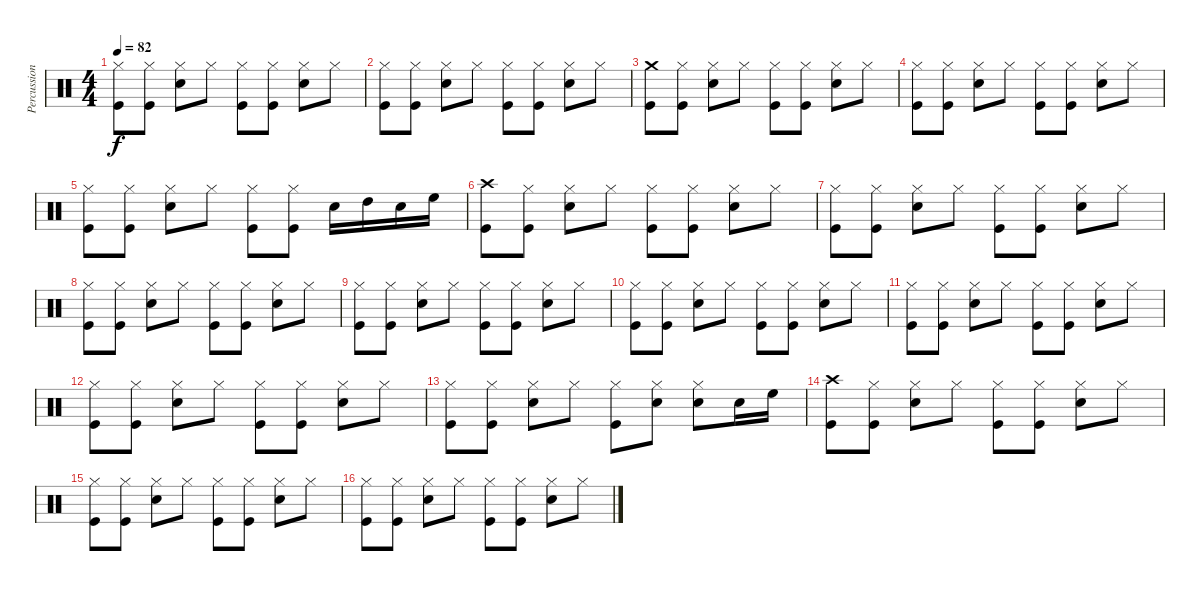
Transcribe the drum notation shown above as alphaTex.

\track ("Percussioni" "Percussion") {instrument percussion}
\staff {score}
\articulation defaults
\ts (4 4)
\tempo 82
\clef neutral
\ks c
("Hi-Hat (closed)" "Kick (hit)").8{dy f} ("Hi-Hat (closed)" "Kick (hit)").8 ("Hi-Hat (closed)" "Snare (hit) 2").8 "Hi-Hat (closed)".8 ("Hi-Hat (closed)" "Kick (hit)").8 ("Hi-Hat (closed)" "Kick (hit)").8 ("Hi-Hat (closed)" "Snare (hit) 2").8 "Hi-Hat (closed)".8 |
("Hi-Hat (closed)" "Kick (hit)").8 ("Hi-Hat (closed)" "Kick (hit)").8 ("Hi-Hat (closed)" "Snare (hit) 2").8 "Hi-Hat (closed)".8 ("Hi-Hat (closed)" "Kick (hit)").8 ("Hi-Hat (closed)" "Kick (hit)").8 ("Hi-Hat (closed)" "Snare (hit) 2").8 "Hi-Hat (closed)".8 |
("Crash medium (hit)" "Kick (hit)").8 ("Hi-Hat (closed)" "Kick (hit)").8 ("Hi-Hat (closed)" "Snare (hit) 2").8 "Hi-Hat (closed)".8 ("Hi-Hat (closed)" "Kick (hit)").8 ("Hi-Hat (closed)" "Kick (hit)").8 ("Hi-Hat (closed)" "Snare (hit) 2").8 "Hi-Hat (closed)".8 |
("Hi-Hat (closed)" "Kick (hit)").8 ("Hi-Hat (closed)" "Kick (hit)").8 ("Hi-Hat (closed)" "Snare (hit) 2").8 "Hi-Hat (closed)".8 ("Hi-Hat (closed)" "Kick (hit)").8 ("Hi-Hat (closed)" "Kick (hit)").8 ("Hi-Hat (closed)" "Snare (hit) 2").8 "Hi-Hat (closed)".8 |
("Hi-Hat (closed)" "Kick (hit)").8 ("Hi-Hat (closed)" "Kick (hit)").8 ("Hi-Hat (closed)" "Snare (hit) 2").8 "Hi-Hat (closed)".8 ("Hi-Hat (closed)" "Kick (hit)").8 ("Hi-Hat (closed)" "Kick (hit)").8 "Snare (hit) 2".16 "High Tom (hit)".16 "Snare (hit) 2".16 "High Floor Tom (hit)".16 |
("Crash high (hit)" "Kick (hit)").8 ("Hi-Hat (closed)" "Kick (hit)").8 ("Hi-Hat (closed)" "Snare (hit) 2").8 "Hi-Hat (closed)".8 ("Hi-Hat (closed)" "Kick (hit)").8 ("Hi-Hat (closed)" "Kick (hit)").8 ("Hi-Hat (closed)" "Snare (hit) 2").8 "Hi-Hat (closed)".8 |
("Hi-Hat (closed)" "Kick (hit)").8 ("Hi-Hat (closed)" "Kick (hit)").8 ("Hi-Hat (closed)" "Snare (hit) 2").8 "Hi-Hat (closed)".8 ("Hi-Hat (closed)" "Kick (hit)").8 ("Hi-Hat (closed)" "Kick (hit)").8 ("Hi-Hat (closed)" "Snare (hit) 2").8 "Hi-Hat (closed)".8 |
("Hi-Hat (closed)" "Kick (hit)").8 ("Hi-Hat (closed)" "Kick (hit)").8 ("Hi-Hat (closed)" "Snare (hit) 2").8 "Hi-Hat (closed)".8 ("Hi-Hat (closed)" "Kick (hit)").8 ("Hi-Hat (closed)" "Kick (hit)").8 ("Hi-Hat (closed)" "Snare (hit) 2").8 "Hi-Hat (closed)".8 |
("Hi-Hat (closed)" "Kick (hit)").8 ("Hi-Hat (closed)" "Kick (hit)").8 ("Hi-Hat (closed)" "Snare (hit) 2").8 "Hi-Hat (closed)".8 ("Hi-Hat (closed)" "Kick (hit)").8 ("Hi-Hat (closed)" "Kick (hit)").8 ("Hi-Hat (closed)" "Snare (hit) 2").8 "Hi-Hat (closed)".8 |
("Hi-Hat (closed)" "Kick (hit)").8 ("Hi-Hat (closed)" "Kick (hit)").8 ("Hi-Hat (closed)" "Snare (hit) 2").8 "Hi-Hat (closed)".8 ("Hi-Hat (closed)" "Kick (hit)").8 ("Hi-Hat (closed)" "Kick (hit)").8 ("Hi-Hat (closed)" "Snare (hit) 2").8 "Hi-Hat (closed)".8 |
("Hi-Hat (closed)" "Kick (hit)").8 ("Hi-Hat (closed)" "Kick (hit)").8 ("Hi-Hat (closed)" "Snare (hit) 2").8 "Hi-Hat (closed)".8 ("Hi-Hat (closed)" "Kick (hit)").8 ("Hi-Hat (closed)" "Kick (hit)").8 ("Hi-Hat (closed)" "Snare (hit) 2").8 "Hi-Hat (closed)".8 |
("Hi-Hat (closed)" "Kick (hit)").8 ("Hi-Hat (closed)" "Kick (hit)").8 ("Hi-Hat (closed)" "Snare (hit) 2").8 "Hi-Hat (closed)".8 ("Hi-Hat (closed)" "Kick (hit)").8 ("Hi-Hat (closed)" "Kick (hit)").8 ("Hi-Hat (closed)" "Snare (hit) 2").8 "Hi-Hat (closed)".8 |
("Hi-Hat (closed)" "Kick (hit)").8 ("Hi-Hat (closed)" "Kick (hit)").8 ("Hi-Hat (closed)" "Snare (hit) 2").8 "Hi-Hat (closed)".8 ("Hi-Hat (closed)" "Kick (hit)").8 ("Hi-Hat (closed)" "Snare (hit) 2").8 ("Hi-Hat (closed)" "Snare (hit) 2").8 "Snare (hit) 2".16 "High Floor Tom (hit)".16 |
("Crash high (hit)" "Kick (hit)").8 ("Hi-Hat (closed)" "Kick (hit)").8 ("Hi-Hat (closed)" "Snare (hit) 2").8 "Hi-Hat (closed)".8 ("Hi-Hat (closed)" "Kick (hit)").8 ("Hi-Hat (closed)" "Kick (hit)").8 ("Hi-Hat (closed)" "Snare (hit) 2").8 "Hi-Hat (closed)".8 |
("Hi-Hat (closed)" "Kick (hit)").8 ("Hi-Hat (closed)" "Kick (hit)").8 ("Hi-Hat (closed)" "Snare (hit) 2").8 "Hi-Hat (closed)".8 ("Hi-Hat (closed)" "Kick (hit)").8 ("Hi-Hat (closed)" "Kick (hit)").8 ("Hi-Hat (closed)" "Snare (hit) 2").8 "Hi-Hat (closed)".8 |
("Hi-Hat (closed)" "Kick (hit)").8 ("Hi-Hat (closed)" "Kick (hit)").8 ("Hi-Hat (closed)" "Snare (hit) 2").8 "Hi-Hat (closed)".8 ("Hi-Hat (closed)" "Kick (hit)").8 ("Hi-Hat (closed)" "Kick (hit)").8 ("Hi-Hat (closed)" "Snare (hit) 2").8 "Hi-Hat (closed)".8
